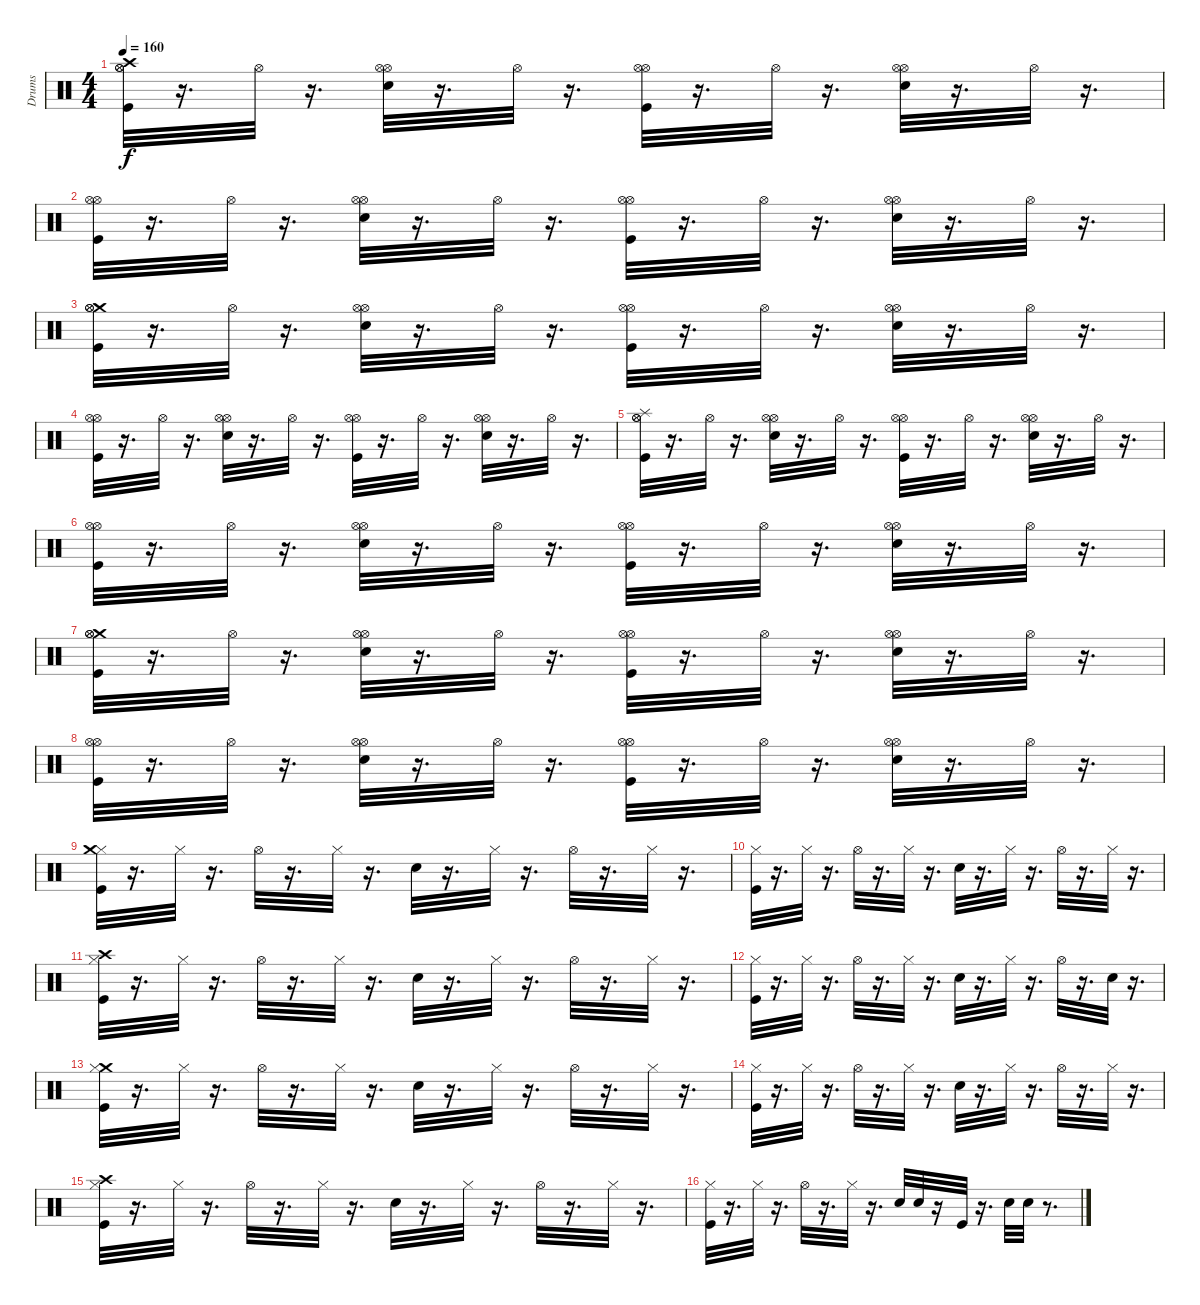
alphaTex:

\track ("Drums" "Drums") {instrument percussion}
\staff {score}
\articulation defaults
\ts (4 4)
\tempo 160
\clef neutral
\ks c
("Crash high (hit)" "Kick (hit)" "Hi-Hat (open)" "Hi-Hat (open)").32{dy f} r.16{d} "Hi-Hat (open)".32 r.16{d} ("Hi-Hat (open)" "Snare (hit) 2" "Hi-Hat (open)").32 r.16{d} "Hi-Hat (open)".32 r.16{d} ("Hi-Hat (open)" "Kick (hit)" "Hi-Hat (open)").32 r.16{d} "Hi-Hat (open)".32 r.16{d} ("Hi-Hat (open)" "Hi-Hat (open)" "Snare (hit) 2").32 r.16{d} "Hi-Hat (open)".32 r.16{d} |
("Hi-Hat (open)" "Hi-Hat (open)" "Kick (hit)").32 r.16{d} "Hi-Hat (open)".32 r.16{d} ("Snare (hit) 2" "Hi-Hat (open)" "Hi-Hat (open)").32 r.16{d} "Hi-Hat (open)".32 r.16{d} ("Kick (hit)" "Hi-Hat (open)" "Hi-Hat (open)").32 r.16{d} "Hi-Hat (open)".32 r.16{d} ("Hi-Hat (open)" "Hi-Hat (open)" "Snare (hit) 2").32 r.16{d} "Hi-Hat (open)".32 r.16{d} |
("Crash medium (hit)" "Hi-Hat (open)" "Kick (hit)" "Hi-Hat (open)").32 r.16{d} "Hi-Hat (open)".32 r.16{d} ("Hi-Hat (open)" "Snare (hit) 2" "Hi-Hat (open)").32 r.16{d} "Hi-Hat (open)".32 r.16{d} ("Kick (hit)" "Hi-Hat (open)" "Hi-Hat (open)").32 r.16{d} "Hi-Hat (open)".32 r.16{d} ("Hi-Hat (open)" "Hi-Hat (open)" "Snare (hit) 2").32 r.16{d} "Hi-Hat (open)".32 r.16{d} |
("Kick (hit)" "Hi-Hat (open)" "Hi-Hat (open)").32 r.16{d} "Hi-Hat (open)".32 r.16{d} ("Snare (hit) 2" "Hi-Hat (open)" "Hi-Hat (open)").32 r.16{d} "Hi-Hat (open)".32 r.16{d} ("Kick (hit)" "Hi-Hat (open)" "Hi-Hat (open)").32 r.16{d} "Hi-Hat (open)".32 r.16{d} ("Hi-Hat (open)" "Snare (hit) 2" "Hi-Hat (open)").32 r.16{d} "Hi-Hat (open)".32 r.16{d} |
("Splash (hit)" "Hi-Hat (open)" "Kick (hit)" "Hi-Hat (open)").32 r.16{d} "Hi-Hat (open)".32 r.16{d} ("Hi-Hat (open)" "Hi-Hat (open)" "Snare (hit) 2").32 r.16{d} "Hi-Hat (open)".32 r.16{d} ("Hi-Hat (open)" "Hi-Hat (open)" "Kick (hit)").32 r.16{d} "Hi-Hat (open)".32 r.16{d} ("Snare (hit) 2" "Hi-Hat (open)" "Hi-Hat (open)").32 r.16{d} "Hi-Hat (open)".32 r.16{d} |
("Kick (hit)" "Hi-Hat (open)" "Hi-Hat (open)").32 r.16{d} "Hi-Hat (open)".32 r.16{d} ("Snare (hit) 2" "Hi-Hat (open)" "Hi-Hat (open)").32 r.16{d} "Hi-Hat (open)".32 r.16{d} ("Hi-Hat (open)" "Kick (hit)" "Hi-Hat (open)").32 r.16{d} "Hi-Hat (open)".32 r.16{d} ("Hi-Hat (open)" "Snare (hit) 2" "Hi-Hat (open)").32 r.16{d} "Hi-Hat (open)".32 r.16{d} |
("Crash medium (hit)" "Kick (hit)" "Hi-Hat (open)" "Hi-Hat (open)").32 r.16{d} "Hi-Hat (open)".32 r.16{d} ("Hi-Hat (open)" "Hi-Hat (open)" "Snare (hit) 2").32 r.16{d} "Hi-Hat (open)".32 r.16{d} ("Kick (hit)" "Hi-Hat (open)" "Hi-Hat (open)").32 r.16{d} "Hi-Hat (open)".32 r.16{d} ("Snare (hit) 2" "Hi-Hat (open)" "Hi-Hat (open)").32 r.16{d} "Hi-Hat (open)".32 r.16{d} |
("Kick (hit)" "Hi-Hat (open)" "Hi-Hat (open)").32 r.16{d} "Hi-Hat (open)".32 r.16{d} ("Hi-Hat (open)" "Snare (hit) 2" "Hi-Hat (open)").32 r.16{d} "Hi-Hat (open)".32 r.16{d} ("Kick (hit)" "Hi-Hat (open)" "Hi-Hat (open)").32 r.16{d} "Hi-Hat (open)".32 r.16{d} ("Snare (hit) 2" "Hi-Hat (open)" "Hi-Hat (open)").32 r.16{d} "Hi-Hat (open)".32 r.16{d} |
("Hi-Hat (closed)" "Kick (hit)" "Crash medium (hit)").32 r.16{d} "Hi-Hat (closed)".32 r.16{d} "Hi-Hat (open)".32 r.16{d} "Hi-Hat (closed)".32 r.16{d} "Snare (hit) 2".32 r.16{d} "Hi-Hat (closed)".32 r.16{d} "Hi-Hat (open)".32 r.16{d} "Hi-Hat (closed)".32 r.16{d} |
("Hi-Hat (closed)" "Kick (hit)").32 r.16{d} "Hi-Hat (closed)".32 r.16{d} "Hi-Hat (open)".32 r.16{d} "Hi-Hat (closed)".32 r.16{d} "Snare (hit) 2".32 r.16{d} "Hi-Hat (closed)".32 r.16{d} "Hi-Hat (open)".32 r.16{d} "Hi-Hat (closed)".32 r.16{d} |
("Hi-Hat (closed)" "Crash high (hit)" "Kick (hit)").32 r.16{d} "Hi-Hat (closed)".32 r.16{d} "Hi-Hat (open)".32 r.16{d} "Hi-Hat (closed)".32 r.16{d} "Snare (hit) 2".32 r.16{d} "Hi-Hat (closed)".32 r.16{d} "Hi-Hat (open)".32 r.16{d} "Hi-Hat (closed)".32 r.16{d} |
("Hi-Hat (closed)" "Kick (hit)").32 r.16{d} "Hi-Hat (closed)".32 r.16{d} "Hi-Hat (open)".32 r.16{d} "Hi-Hat (closed)".32 r.16{d} "Snare (hit) 2".32 r.16{d} "Hi-Hat (closed)".32 r.16{d} "Hi-Hat (open)".32 r.16{d} "Snare (hit) 2".32 r.16{d} |
("Crash medium (hit)" "Hi-Hat (closed)" "Kick (hit)").32 r.16{d} "Hi-Hat (closed)".32 r.16{d} "Hi-Hat (open)".32 r.16{d} "Hi-Hat (closed)".32 r.16{d} "Snare (hit) 2".32 r.16{d} "Hi-Hat (closed)".32 r.16{d} "Hi-Hat (open)".32 r.16{d} "Hi-Hat (closed)".32 r.16{d} |
("Hi-Hat (closed)" "Kick (hit)").32 r.16{d} "Hi-Hat (closed)".32 r.16{d} "Hi-Hat (open)".32 r.16{d} "Hi-Hat (closed)".32 r.16{d} "Snare (hit) 2".32 r.16{d} "Hi-Hat (closed)".32 r.16{d} "Hi-Hat (open)".32 r.16{d} "Hi-Hat (closed)".32 r.16{d} |
("Crash high (hit)" "Hi-Hat (closed)" "Kick (hit)").32 r.16{d} "Hi-Hat (closed)".32 r.16{d} "Hi-Hat (open)".32 r.16{d} "Hi-Hat (closed)".32 r.16{d} "Snare (hit) 2".32 r.16{d} "Hi-Hat (closed)".32 r.16{d} "Hi-Hat (open)".32 r.16{d} "Hi-Hat (closed)".32 r.16{d} |
("Hi-Hat (closed)" "Kick (hit)").32 r.16{d} "Hi-Hat (closed)".32 r.16{d} "Hi-Hat (open)".32 r.16{d} "Hi-Hat (closed)".32 r.16{d} "Snare (hit) 2".32 "Snare (hit) 2".32 r.16 "Kick (hit)".32 r.16{d} "Snare (hit) 2".32 "Snare (hit) 2".32 r.8{d}
